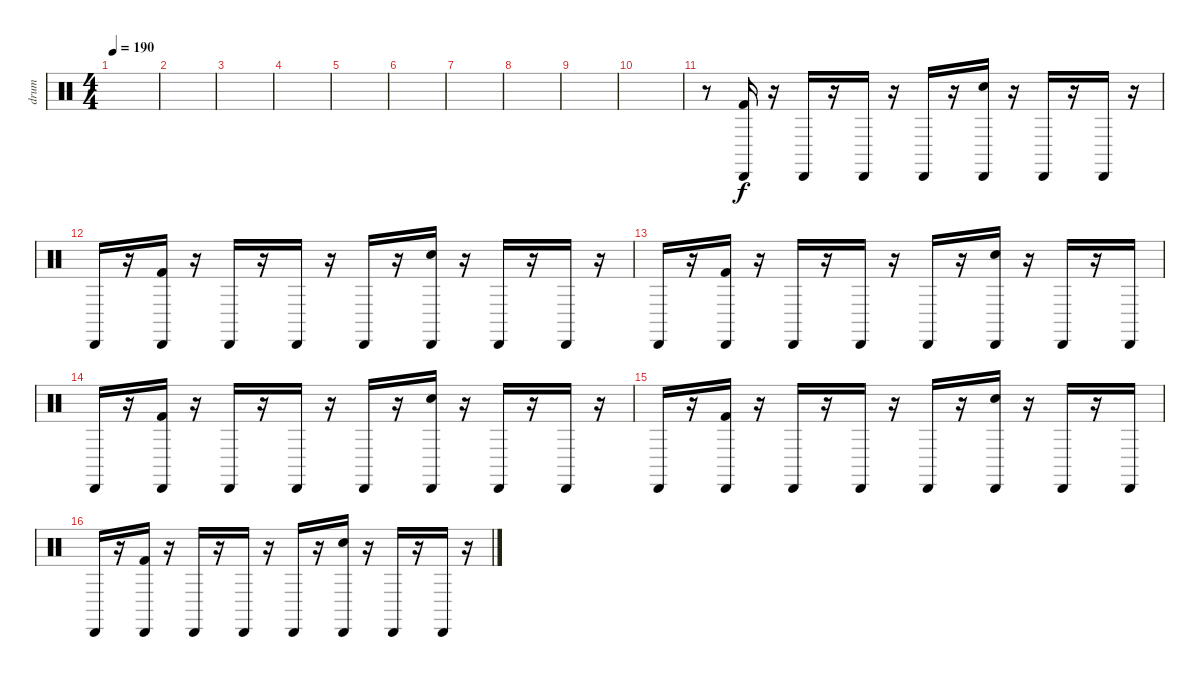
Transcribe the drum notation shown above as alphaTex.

\track ("drum" "drum") {instrument percussion}
\staff {score}
\articulation defaults
\ts (4 4)
\tempo 190
\clef neutral
\ks c
|
|
|
|
|
|
|
|
|
|
r.8 ("Cabasa (hit)" "Kick (hit) 2").16 r.16 "Cabasa (hit)".16 r.16 "Cabasa (hit)".16 r.16 "Cabasa (hit)".16 r.16 ("Cabasa (hit)" "Snare (hit) 2").16 r.16 "Cabasa (hit)".16 r.16 "Cabasa (hit)".16 r.16 |
"Cabasa (hit)".16 r.16 ("Cabasa (hit)" "Kick (hit) 2").16 r.16 "Cabasa (hit)".16 r.16 "Cabasa (hit)".16 r.16 "Cabasa (hit)".16 r.16 ("Cabasa (hit)" "Snare (hit) 2").16 r.16 "Cabasa (hit)".16 r.16 "Cabasa (hit)".16 r.16 |
"Cabasa (hit)".16 r.16 ("Cabasa (hit)" "Kick (hit) 2").16 r.16 "Cabasa (hit)".16 r.16 "Cabasa (hit)".16 r.16 "Cabasa (hit)".16 r.16 ("Cabasa (hit)" "Snare (hit) 2").16 r.16 "Cabasa (hit)".16 r.16 "Cabasa (hit)".16 |
"Cabasa (hit)".16 r.16 ("Cabasa (hit)" "Kick (hit) 2").16 r.16 "Cabasa (hit)".16 r.16 "Cabasa (hit)".16 r.16 "Cabasa (hit)".16 r.16 ("Cabasa (hit)" "Snare (hit) 2").16 r.16 "Cabasa (hit)".16 r.16 "Cabasa (hit)".16 r.16 |
"Cabasa (hit)".16 r.16 ("Cabasa (hit)" "Kick (hit) 2").16 r.16 "Cabasa (hit)".16 r.16 "Cabasa (hit)".16 r.16 "Cabasa (hit)".16 r.16 ("Cabasa (hit)" "Snare (hit) 2").16 r.16 "Cabasa (hit)".16 r.16 "Cabasa (hit)".16 |
"Cabasa (hit)".16 r.16 ("Cabasa (hit)" "Kick (hit) 2").16 r.16 "Cabasa (hit)".16 r.16 "Cabasa (hit)".16 r.16 "Cabasa (hit)".16 r.16 ("Cabasa (hit)" "Snare (hit) 2").16 r.16 "Cabasa (hit)".16 r.16 "Cabasa (hit)".16 r.16
